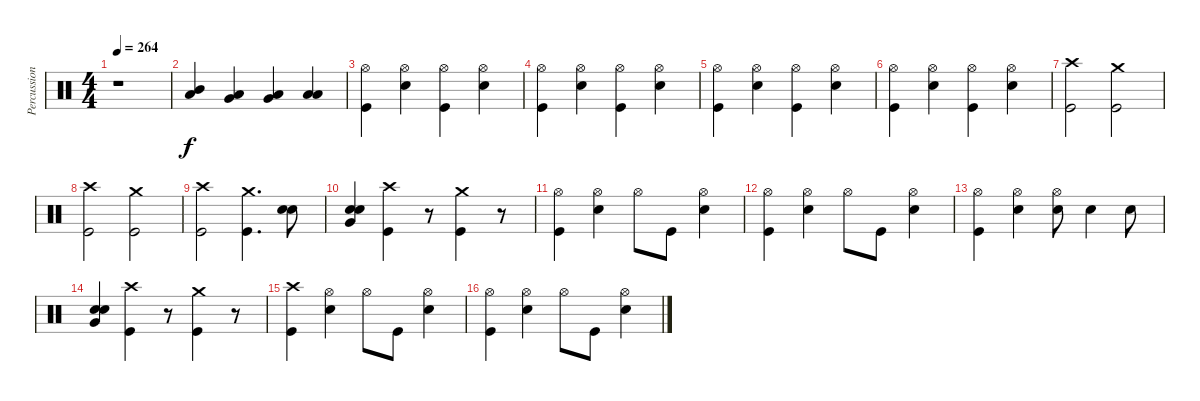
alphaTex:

\track ("Percussion" "Percussion") {instrument percussion}
\staff {score}
\articulation defaults
\ts (4 4)
\tempo 264
\clef neutral
\ks c
r.1{dy f} |
("Low Tom (hit)" "Mid Tom (hit)").4 ("Very Low Tom (hit)" "Low Tom (hit)").4 ("Low Floor Tom (hit)" "Very Low Tom (hit)").4 ("Low Floor Tom (hit)" "Low Floor Tom (hit)").4 |
("Hi-Hat (open)" "Kick (hit)").4 ("Hi-Hat (open)" "Snare (hit) 2").4 ("Hi-Hat (open)" "Kick (hit)").4 ("Hi-Hat (open)" "Snare (hit) 2").4 |
("Hi-Hat (open)" "Kick (hit)").4 ("Hi-Hat (open)" "Snare (hit) 2").4 ("Hi-Hat (open)" "Kick (hit)").4 ("Hi-Hat (open)" "Snare (hit) 2").4 |
("Hi-Hat (open)" "Kick (hit)").4 ("Hi-Hat (open)" "Snare (hit) 2").4 ("Hi-Hat (open)" "Kick (hit)").4 ("Hi-Hat (open)" "Snare (hit) 2").4 |
("Hi-Hat (open)" "Kick (hit)").4 ("Hi-Hat (open)" "Snare (hit) 2").4 ("Hi-Hat (open)" "Kick (hit)").4 ("Hi-Hat (open)" "Snare (hit) 2").4 |
("Crash high (hit)" "Kick (hit)").2 ("Crash medium (hit)" "Kick (hit)").2 |
("Crash high (hit)" "Kick (hit)").2 ("Crash medium (hit)" "Kick (hit)").2 |
("Crash high (hit)" "Kick (hit)").2 ("Crash medium (hit)" "Kick (hit)").4{d} ("Electric Snare (hit)" "Snare (hit) 2").8 |
("Very Low Tom (hit)" "Electric Snare (hit)" "Snare (hit) 2").4 ("Crash high (hit)" "Kick (hit)").4 r.8 ("Crash medium (hit)" "Kick (hit)").4 r.8 |
("Hi-Hat (open)" "Kick (hit)").4 ("Hi-Hat (open)" "Snare (hit) 2").4 "Hi-Hat (open)".8 "Kick (hit)".8 ("Hi-Hat (open)" "Snare (hit) 2").4 |
("Hi-Hat (open)" "Kick (hit)").4 ("Hi-Hat (open)" "Snare (hit) 2").4 "Hi-Hat (open)".8 "Kick (hit)".8 ("Hi-Hat (open)" "Snare (hit) 2").4 |
("Hi-Hat (open)" "Kick (hit)").4 ("Hi-Hat (open)" "Snare (hit) 2").4 ("Hi-Hat (open)" "Snare (hit) 2").8 "Snare (hit) 2".4 "Snare (hit) 2".8 |
("Very Low Tom (hit)" "Electric Snare (hit)" "Snare (hit) 2").4 ("Crash high (hit)" "Kick (hit)").4 r.8 ("Crash medium (hit)" "Kick (hit)").4 r.8 |
("Crash high (hit)" "Kick (hit)").4 ("Hi-Hat (open)" "Snare (hit) 2").4 "Hi-Hat (open)".8 "Kick (hit)".8 ("Hi-Hat (open)" "Snare (hit) 2").4 |
("Hi-Hat (open)" "Kick (hit)").4 ("Hi-Hat (open)" "Snare (hit) 2").4 "Hi-Hat (open)".8 "Kick (hit)".8 ("Hi-Hat (open)" "Snare (hit) 2").4
